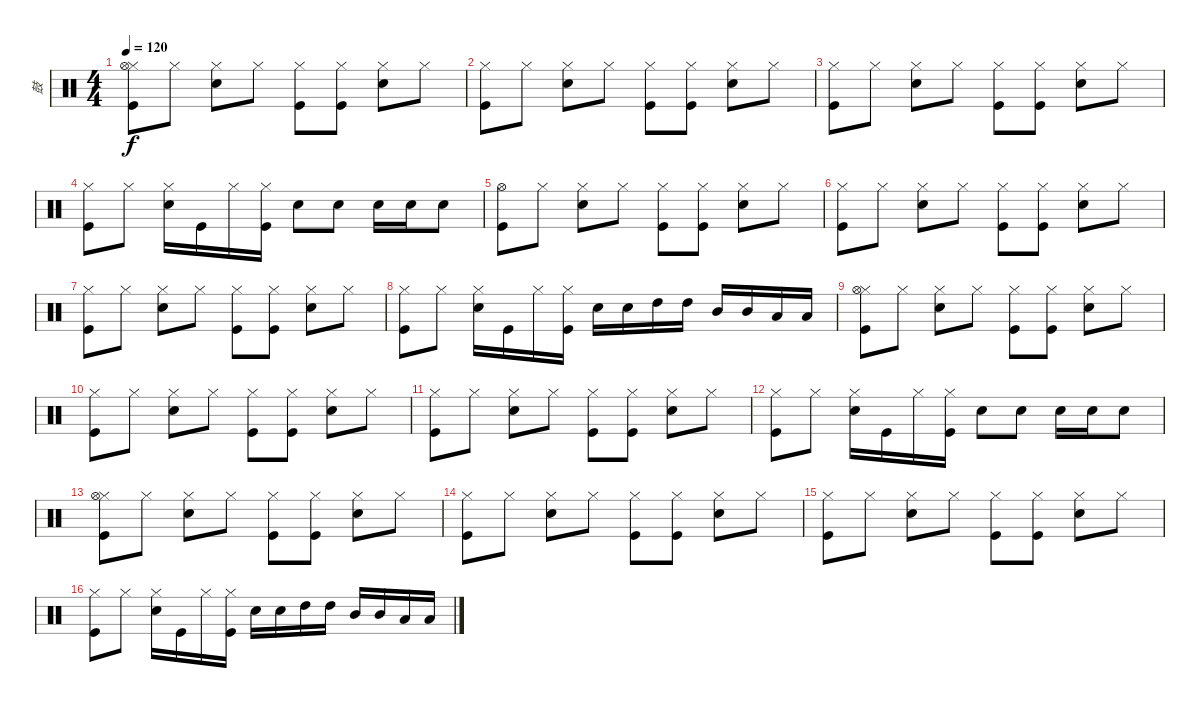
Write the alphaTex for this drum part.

\track ("鼓" "鼓") {instrument percussion}
\staff {score}
\articulation defaults
\ts (4 4)
\tempo 120
\clef neutral
\ks c
("Hi-Hat (closed)" "Hi-Hat (open)" "Kick (hit)").8{dy f} "Hi-Hat (closed)".8 ("Hi-Hat (closed)" "Snare (hit) 2").8 "Hi-Hat (closed)".8 ("Hi-Hat (closed)" "Kick (hit)").8 ("Hi-Hat (closed)" "Kick (hit)").8 ("Hi-Hat (closed)" "Snare (hit) 2").8 "Hi-Hat (closed)".8 |
("Hi-Hat (closed)" "Kick (hit)").8 "Hi-Hat (closed)".8 ("Hi-Hat (closed)" "Snare (hit) 2").8 "Hi-Hat (closed)".8 ("Hi-Hat (closed)" "Kick (hit)").8 ("Hi-Hat (closed)" "Kick (hit)").8 ("Hi-Hat (closed)" "Snare (hit) 2").8 "Hi-Hat (closed)".8 |
("Hi-Hat (closed)" "Kick (hit)").8 "Hi-Hat (closed)".8 ("Hi-Hat (closed)" "Snare (hit) 2").8 "Hi-Hat (closed)".8 ("Hi-Hat (closed)" "Kick (hit)").8 ("Hi-Hat (closed)" "Kick (hit)").8 ("Hi-Hat (closed)" "Snare (hit) 2").8 "Hi-Hat (closed)".8 |
("Hi-Hat (closed)" "Kick (hit)").8 "Hi-Hat (closed)".8 ("Hi-Hat (closed)" "Snare (hit) 2").16 "Kick (hit)".16 "Hi-Hat (closed)".16 ("Hi-Hat (closed)" "Kick (hit)").16 "Snare (hit) 2".8 "Snare (hit) 2".8 "Snare (hit) 2".16 "Snare (hit) 2".16 "Snare (hit) 2".8 |
("Hi-Hat (open)" "Kick (hit)").8 "Hi-Hat (closed)".8 ("Hi-Hat (closed)" "Snare (hit) 2").8 "Hi-Hat (closed)".8 ("Hi-Hat (closed)" "Kick (hit)").8 ("Hi-Hat (closed)" "Kick (hit)").8 ("Hi-Hat (closed)" "Snare (hit) 2").8 "Hi-Hat (closed)".8 |
("Hi-Hat (closed)" "Kick (hit)").8 "Hi-Hat (closed)".8 ("Hi-Hat (closed)" "Snare (hit) 2").8 "Hi-Hat (closed)".8 ("Hi-Hat (closed)" "Kick (hit)").8 ("Hi-Hat (closed)" "Kick (hit)").8 ("Hi-Hat (closed)" "Snare (hit) 2").8 "Hi-Hat (closed)".8 |
("Hi-Hat (closed)" "Kick (hit)").8 "Hi-Hat (closed)".8 ("Hi-Hat (closed)" "Snare (hit) 2").8 "Hi-Hat (closed)".8 ("Hi-Hat (closed)" "Kick (hit)").8 ("Hi-Hat (closed)" "Kick (hit)").8 ("Hi-Hat (closed)" "Snare (hit) 2").8 "Hi-Hat (closed)".8 |
("Hi-Hat (closed)" "Kick (hit)").8 "Hi-Hat (closed)".8 ("Hi-Hat (closed)" "Snare (hit) 2").16 "Kick (hit)".16 "Hi-Hat (closed)".16 ("Hi-Hat (closed)" "Kick (hit)").16 "Snare (hit) 2".16 "Snare (hit) 2".16 "High Tom (hit)".16 "High Tom (hit)".16 "Mid Tom (hit)".16 "Mid Tom (hit)".16 "Low Tom (hit)".16 "Low Tom (hit)".16 |
("Hi-Hat (closed)" "Hi-Hat (open)" "Kick (hit)").8 "Hi-Hat (closed)".8 ("Hi-Hat (closed)" "Snare (hit) 2").8 "Hi-Hat (closed)".8 ("Hi-Hat (closed)" "Kick (hit)").8 ("Hi-Hat (closed)" "Kick (hit)").8 ("Hi-Hat (closed)" "Snare (hit) 2").8 "Hi-Hat (closed)".8 |
("Hi-Hat (closed)" "Kick (hit)").8 "Hi-Hat (closed)".8 ("Hi-Hat (closed)" "Snare (hit) 2").8 "Hi-Hat (closed)".8 ("Hi-Hat (closed)" "Kick (hit)").8 ("Hi-Hat (closed)" "Kick (hit)").8 ("Hi-Hat (closed)" "Snare (hit) 2").8 "Hi-Hat (closed)".8 |
("Hi-Hat (closed)" "Kick (hit)").8 "Hi-Hat (closed)".8 ("Hi-Hat (closed)" "Snare (hit) 2").8 "Hi-Hat (closed)".8 ("Hi-Hat (closed)" "Kick (hit)").8 ("Hi-Hat (closed)" "Kick (hit)").8 ("Hi-Hat (closed)" "Snare (hit) 2").8 "Hi-Hat (closed)".8 |
("Hi-Hat (closed)" "Kick (hit)").8 "Hi-Hat (closed)".8 ("Hi-Hat (closed)" "Snare (hit) 2").16 "Kick (hit)".16 "Hi-Hat (closed)".16 ("Hi-Hat (closed)" "Kick (hit)").16 "Snare (hit) 2".8 "Snare (hit) 2".8 "Snare (hit) 2".16 "Snare (hit) 2".16 "Snare (hit) 2".8 |
("Hi-Hat (closed)" "Hi-Hat (open)" "Kick (hit)").8 "Hi-Hat (closed)".8 ("Hi-Hat (closed)" "Snare (hit) 2").8 "Hi-Hat (closed)".8 ("Hi-Hat (closed)" "Kick (hit)").8 ("Hi-Hat (closed)" "Kick (hit)").8 ("Hi-Hat (closed)" "Snare (hit) 2").8 "Hi-Hat (closed)".8 |
("Hi-Hat (closed)" "Kick (hit)").8 "Hi-Hat (closed)".8 ("Hi-Hat (closed)" "Snare (hit) 2").8 "Hi-Hat (closed)".8 ("Hi-Hat (closed)" "Kick (hit)").8 ("Hi-Hat (closed)" "Kick (hit)").8 ("Hi-Hat (closed)" "Snare (hit) 2").8 "Hi-Hat (closed)".8 |
("Hi-Hat (closed)" "Kick (hit)").8 "Hi-Hat (closed)".8 ("Hi-Hat (closed)" "Snare (hit) 2").8 "Hi-Hat (closed)".8 ("Hi-Hat (closed)" "Kick (hit)").8 ("Hi-Hat (closed)" "Kick (hit)").8 ("Hi-Hat (closed)" "Snare (hit) 2").8 "Hi-Hat (closed)".8 |
("Hi-Hat (closed)" "Kick (hit)").8 "Hi-Hat (closed)".8 ("Hi-Hat (closed)" "Snare (hit) 2").16 "Kick (hit)".16 "Hi-Hat (closed)".16 ("Hi-Hat (closed)" "Kick (hit)").16 "Snare (hit) 2".16 "Snare (hit) 2".16 "High Tom (hit)".16 "High Tom (hit)".16 "Mid Tom (hit)".16 "Mid Tom (hit)".16 "Low Tom (hit)".16 "Low Tom (hit)".16
